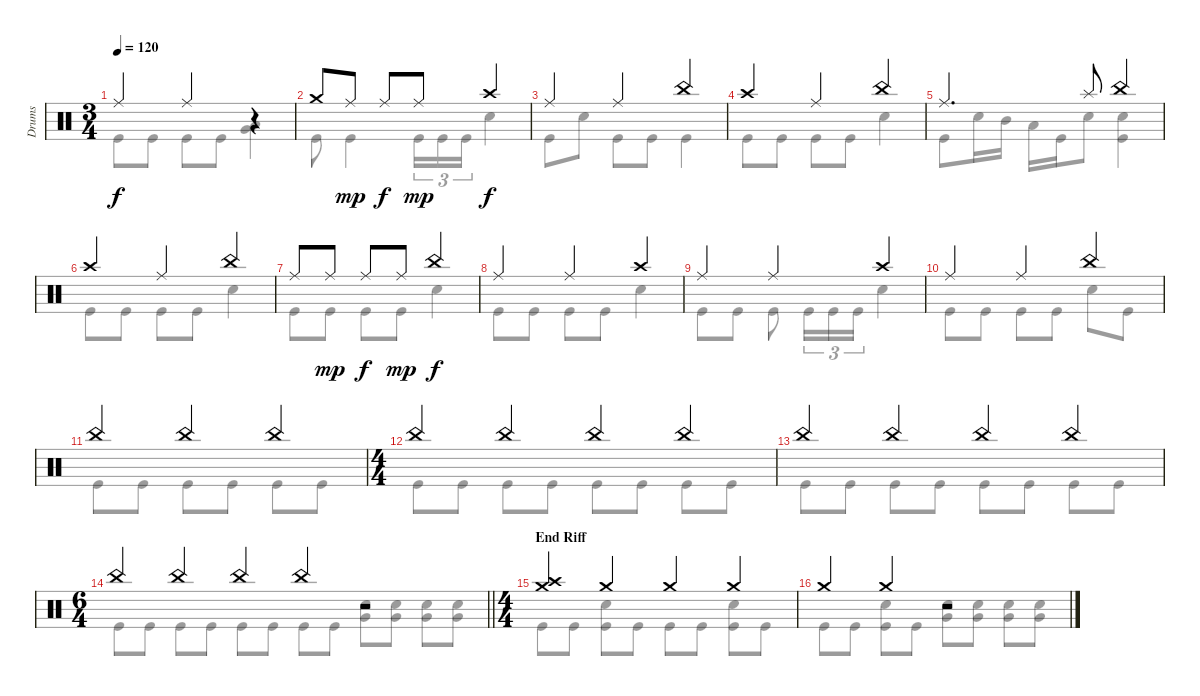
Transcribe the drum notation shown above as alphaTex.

\track ("Drums" "Drums") {instrument percussion}
\staff {score}
\articulation defaults
\voice
\ts (3 4)
\tempo 120
\clef neutral
\ks c "Ride (middle)".4{dy f} "Ride (middle)".4
r.4 |
"Crash medium (hit)".8 "Ride (middle)".8{dy mp} "Ride (middle)".8{dy f} "Ride (middle)".8{dy mp} "Crash high (hit)".4{dy f} |
"Ride (middle)".4 "Ride (middle)".4 "China (hit)".4 |
"Crash high (hit)".4 "Ride (middle)".4 "China (hit)".4 |
"Ride (middle)".4{d} "Splash (hit)".8 "China (hit)".4 |
"Crash high (hit)".4 "Ride (middle)".4 "China (hit)".4 |
"Ride (middle)".8 "Ride (middle)".8{dy mp} "Ride (middle)".8{dy f} "Ride (middle)".8{dy mp} "China (hit)".4{dy f} |
"Ride (middle)".4 "Ride (middle)".4 "Crash high (hit)".4 |
"Ride (middle)".4 "Ride (middle)".4 "Crash high (hit)".4 |
"Ride (middle)".4 "Ride (middle)".4 "China (hit)".4 |
"China (hit)".4 "China (hit)".4 "China (hit)".4 |
\ts (4 4)
"China (hit)".4 "China (hit)".4 "China (hit)".4 "China (hit)".4 |
"China (hit)".4 "China (hit)".4 "China (hit)".4 "China (hit)".4 |
\ts (6 4)
\barLineRight lightlight "China (hit)".4 "China (hit)".4 "China (hit)".4 "China (hit)".4
r.2 |
\ts (4 4)
\section ("" "End Riff")
("Crash medium (hit)" "Crash high (hit)").4 "Crash medium (hit)".4 "Crash medium (hit)".4 "Crash medium (hit)".4 |
"Crash medium (hit)".4 "Crash medium (hit)".4 r.2
\voice
\clef neutral
\ottava regular
\simile none
\ks c "Kick (hit)".8{dy f} "Kick (hit)".8 "Kick (hit)".8 "Kick (hit)".8
("Very Low Tom (hit)" "Low Floor Tom (hit)").4 |
"Kick (hit)".8 "Kick (hit)".4 "Kick (hit)".16{tu (3 2)} "Kick (hit)".16{tu (3 2)} "Kick (hit)".16{tu (3 2)} "Snare (hit) 2".4 |
"Kick (hit)".8 "Snare (hit) 2".8 "Kick (hit)".8 "Kick (hit)".8 "Kick (hit)".4 |
"Kick (hit)".8 "Kick (hit)".8 "Kick (hit)".8 "Kick (hit)".8 "Snare (hit) 2".4 |
"Kick (hit)".8 "Snare (hit) 2".16 "Mid Tom (hit)".16 "Low Tom (hit)".16 "Kick (hit)".16 "Snare (hit) 2".8 ("Snare (hit) 2" "Kick (hit)").4 |
"Kick (hit)".8 "Kick (hit)".8 "Kick (hit)".8 "Kick (hit)".8 "Snare (hit) 2".4 |
"Kick (hit)".8 "Kick (hit)".8 "Kick (hit)".8 "Kick (hit)".8 "Snare (hit) 2".4 |
"Kick (hit)".8 "Kick (hit)".8 "Kick (hit)".8 "Kick (hit)".8 "Snare (hit) 2".4 |
"Kick (hit)".8 "Kick (hit)".8 "Kick (hit)".8 "Kick (hit)".16{tu (3 2)} "Kick (hit)".16{tu (3 2)} "Kick (hit)".16{tu (3 2)} "Snare (hit) 2".4 |
"Kick (hit)".8 "Kick (hit)".8 "Kick (hit)".8 "Kick (hit)".8 "Snare (hit) 2".8 "Kick (hit)".8 |
"Kick (hit)".8 "Kick (hit)".8 "Kick (hit)".8 "Kick (hit)".8 "Kick (hit)".8 "Kick (hit)".8 |
"Kick (hit)".8 "Kick (hit)".8 "Kick (hit)".8 "Kick (hit)".8 "Kick (hit)".8 "Kick (hit)".8 "Kick (hit)".8 "Kick (hit)".8 |
"Kick (hit)".8 "Kick (hit)".8 "Kick (hit)".8 "Kick (hit)".8 "Kick (hit)".8 "Kick (hit)".8 "Kick (hit)".8 "Kick (hit)".8 |
\barLineRight lightlight "Kick (hit)".8 "Kick (hit)".8 "Kick (hit)".8 "Kick (hit)".8 "Kick (hit)".8 "Kick (hit)".8 "Kick (hit)".8 "Kick (hit)".8
("Snare (hit) 2" "Very Low Tom (hit)").8 ("Snare (hit) 2" "Very Low Tom (hit)").8 ("Snare (hit) 2" "Very Low Tom (hit)").8 ("Snare (hit) 2" "Very Low Tom (hit)").8 |
"Kick (hit)".8 "Kick (hit)".8 ("Snare (hit) 2" "Kick (hit)").8 "Kick (hit)".8 "Kick (hit)".8 "Kick (hit)".8 ("Snare (hit) 2" "Kick (hit)").8 "Kick (hit)".8 |
"Kick (hit)".8 "Kick (hit)".8 ("Snare (hit) 2" "Kick (hit)").8 "Kick (hit)".8 ("Snare (hit) 2" "Very Low Tom (hit)").8 ("Snare (hit) 2" "Very Low Tom (hit)").8 ("Snare (hit) 2" "Very Low Tom (hit)").8 ("Snare (hit) 2" "Very Low Tom (hit)").8
